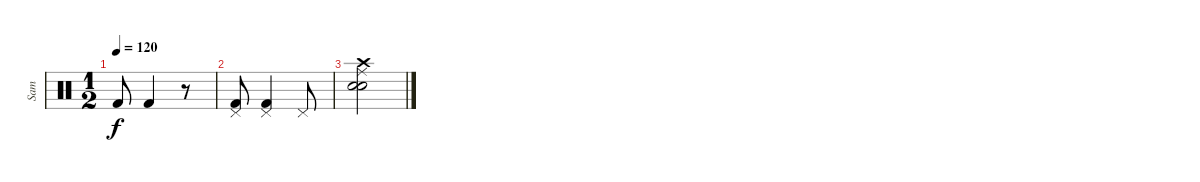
\track ("Sam" "Sam") {instrument percussion}
\staff {score}
\articulation defaults
\ts (1 2)
\tempo 120
\clef neutral
\ks c "Kick (hit) 2".8{dy f} "Kick (hit) 2".4
r.8 |
("Pedal Hi-Hat (hit)" "Kick (hit) 2").8 ("Pedal Hi-Hat (hit)" "Kick (hit) 2").4 "Pedal Hi-Hat (hit)".8 |
("Crash high (hit)" "Ride (middle)" "Snare (hit) 2" "Electric Snare (hit)").2
